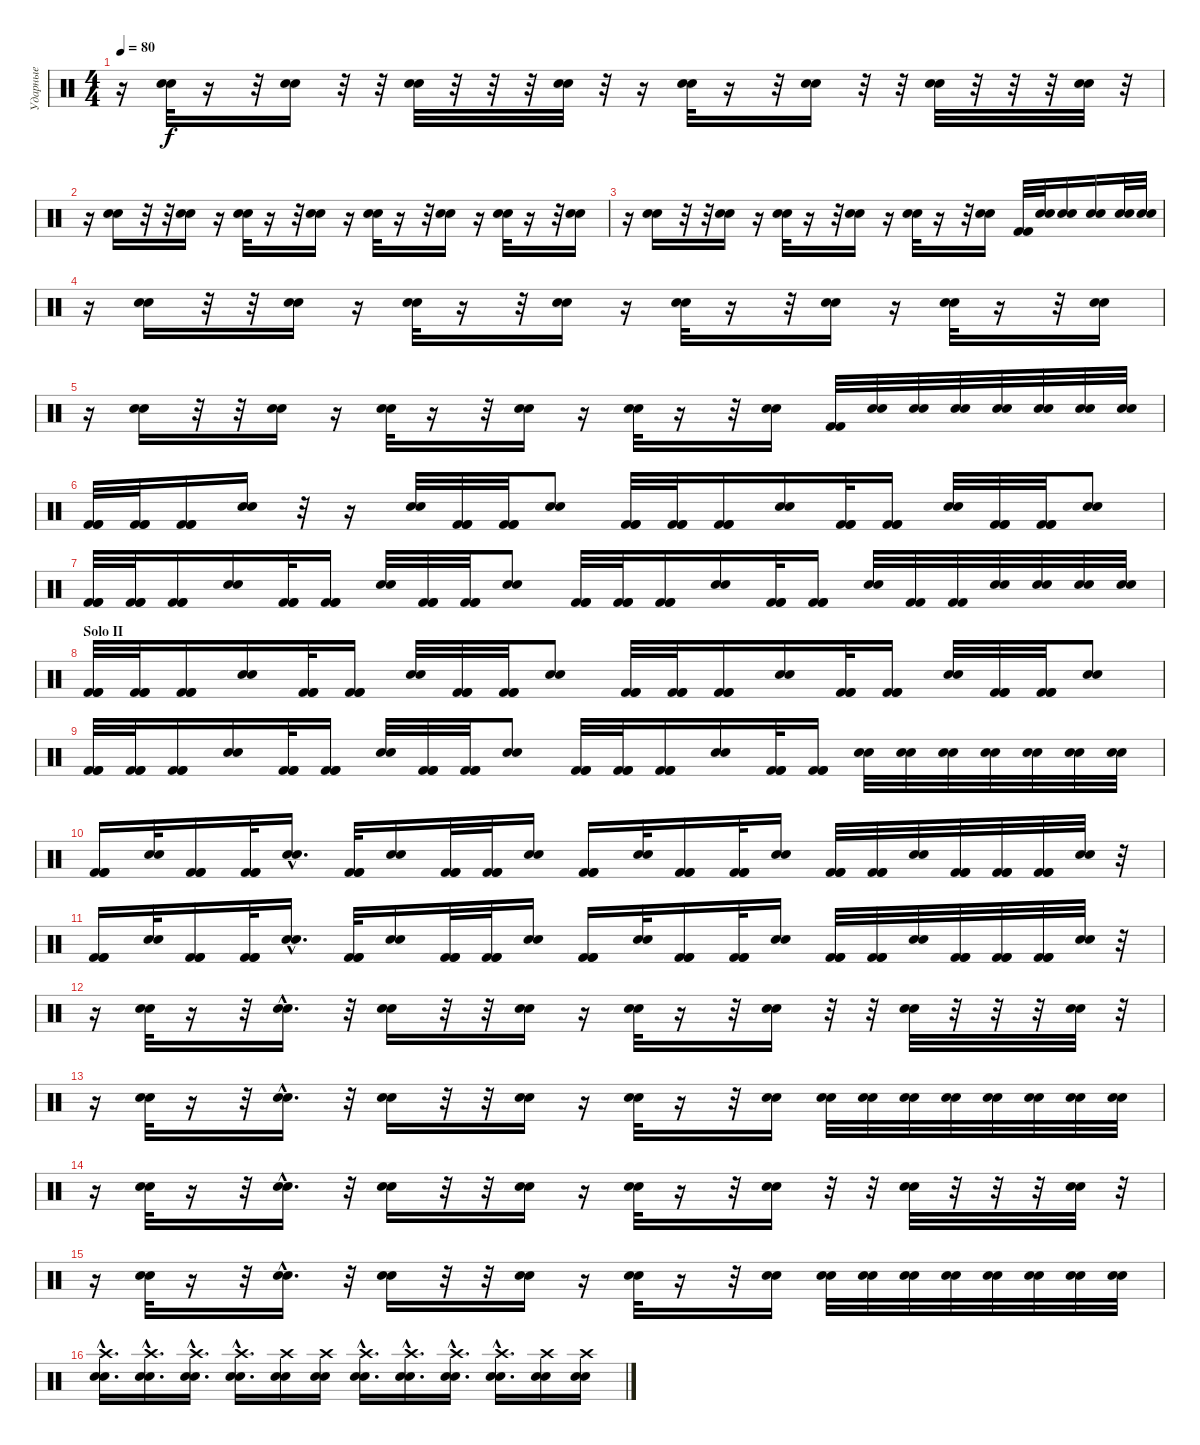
\track ("Ударные" "Ударные") {instrument percussion}
\staff {score}
\articulation defaults
\ts (4 4)
\tempo 80
\clef neutral
\ks c
r.16{dy f} ("Snare (hit) 2" "Snare (hit) 2").32 r.16 r.32 ("Snare (hit) 2" "Snare (hit) 2").16 r.32 r.32 ("Snare (hit) 2" "Snare (hit) 2").32 r.32 r.32 r.32 ("Snare (hit) 2" "Snare (hit) 2").32 r.32 r.16 ("Snare (hit) 2" "Snare (hit) 2").32 r.16 r.32 ("Snare (hit) 2" "Snare (hit) 2").16 r.32 r.32 ("Snare (hit) 2" "Snare (hit) 2").32 r.32 r.32 r.32 ("Snare (hit) 2" "Snare (hit) 2").32 r.32 |
r.16 ("Snare (hit) 2" "Snare (hit) 2").16 r.32 r.32 ("Snare (hit) 2" "Snare (hit) 2").16 r.16 ("Snare (hit) 2" "Snare (hit) 2").32 r.16 r.32 ("Snare (hit) 2" "Snare (hit) 2").16 r.16 ("Snare (hit) 2" "Snare (hit) 2").32 r.16 r.32 ("Snare (hit) 2" "Snare (hit) 2").16 r.16 ("Snare (hit) 2" "Snare (hit) 2").32 r.16 r.32 ("Snare (hit) 2" "Snare (hit) 2").16 |
r.16 ("Snare (hit) 2" "Snare (hit) 2").16 r.32 r.32 ("Snare (hit) 2" "Snare (hit) 2").16 r.16 ("Snare (hit) 2" "Snare (hit) 2").32 r.16 r.32 ("Snare (hit) 2" "Snare (hit) 2").16 r.16 ("Snare (hit) 2" "Snare (hit) 2").32 r.16 r.32 ("Snare (hit) 2" "Snare (hit) 2").16 ("Kick (hit) 2" "Kick (hit) 2").32 ("Snare (hit) 2" "Snare (hit) 2").32 ("Snare (hit) 2" "Snare (hit) 2").16 ("Snare (hit) 2" "Snare (hit) 2").16 ("Snare (hit) 2" "Snare (hit) 2").32 ("Snare (hit) 2" "Snare (hit) 2").32 |
r.16 ("Snare (hit) 2" "Snare (hit) 2").16 r.32 r.32 ("Snare (hit) 2" "Snare (hit) 2").16 r.16 ("Snare (hit) 2" "Snare (hit) 2").32 r.16 r.32 ("Snare (hit) 2" "Snare (hit) 2").16 r.16 ("Snare (hit) 2" "Snare (hit) 2").32 r.16 r.32 ("Snare (hit) 2" "Snare (hit) 2").16 r.16 ("Snare (hit) 2" "Snare (hit) 2").32 r.16 r.32 ("Snare (hit) 2" "Snare (hit) 2").16 |
r.16 ("Snare (hit) 2" "Snare (hit) 2").16 r.32 r.32 ("Snare (hit) 2" "Snare (hit) 2").16 r.16 ("Snare (hit) 2" "Snare (hit) 2").32 r.16 r.32 ("Snare (hit) 2" "Snare (hit) 2").16 r.16 ("Snare (hit) 2" "Snare (hit) 2").32 r.16 r.32 ("Snare (hit) 2" "Snare (hit) 2").16 ("Kick (hit) 2" "Kick (hit) 2").32 ("Snare (hit) 2" "Snare (hit) 2").32 ("Snare (hit) 2" "Snare (hit) 2").32 ("Snare (hit) 2" "Snare (hit) 2").32 ("Snare (hit) 2" "Snare (hit) 2").32 ("Snare (hit) 2" "Snare (hit) 2").32 ("Snare (hit) 2" "Snare (hit) 2").32 ("Snare (hit) 2" "Snare (hit) 2").32 |
("Kick (hit) 2" "Kick (hit) 2" "Kick (hit) 2").32 ("Kick (hit) 2" "Kick (hit) 2" "Kick (hit) 2").32 ("Kick (hit) 2" "Kick (hit) 2" "Kick (hit) 2").16 ("Snare (hit) 2" "Snare (hit) 2").16 r.32 r.16 ("Snare (hit) 2" "Snare (hit) 2").32 ("Kick (hit) 2" "Kick (hit) 2" "Kick (hit) 2").32 ("Kick (hit) 2" "Kick (hit) 2" "Kick (hit) 2").32 ("Snare (hit) 2" "Snare (hit) 2").8 ("Kick (hit) 2" "Kick (hit) 2" "Kick (hit) 2").32 ("Kick (hit) 2" "Kick (hit) 2" "Kick (hit) 2").32 ("Kick (hit) 2" "Kick (hit) 2" "Kick (hit) 2").16 ("Snare (hit) 2" "Snare (hit) 2").16 ("Kick (hit) 2" "Kick (hit) 2" "Kick (hit) 2").32 ("Kick (hit) 2" "Kick (hit) 2" "Kick (hit) 2").16 ("Snare (hit) 2" "Snare (hit) 2").32 ("Kick (hit) 2" "Kick (hit) 2" "Kick (hit) 2").32 ("Kick (hit) 2" "Kick (hit) 2" "Kick (hit) 2").32 ("Snare (hit) 2" "Snare (hit) 2").8 |
("Kick (hit) 2" "Kick (hit) 2" "Kick (hit) 2").32 ("Kick (hit) 2" "Kick (hit) 2" "Kick (hit) 2").32 ("Kick (hit) 2" "Kick (hit) 2" "Kick (hit) 2").16 ("Snare (hit) 2" "Snare (hit) 2").16 ("Kick (hit) 2" "Kick (hit) 2" "Kick (hit) 2").32 ("Kick (hit) 2" "Kick (hit) 2" "Kick (hit) 2").16 ("Snare (hit) 2" "Snare (hit) 2").32 ("Kick (hit) 2" "Kick (hit) 2" "Kick (hit) 2").32 ("Kick (hit) 2" "Kick (hit) 2" "Kick (hit) 2").32 ("Snare (hit) 2" "Snare (hit) 2").8 ("Kick (hit) 2" "Kick (hit) 2" "Kick (hit) 2").32 ("Kick (hit) 2" "Kick (hit) 2" "Kick (hit) 2").32 ("Kick (hit) 2" "Kick (hit) 2" "Kick (hit) 2").16 ("Snare (hit) 2" "Snare (hit) 2").16 ("Kick (hit) 2" "Kick (hit) 2" "Kick (hit) 2").32 ("Kick (hit) 2" "Kick (hit) 2" "Kick (hit) 2").16 ("Snare (hit) 2" "Snare (hit) 2").32 ("Kick (hit) 2" "Kick (hit) 2").32 ("Kick (hit) 2" "Kick (hit) 2").32 ("Snare (hit) 2" "Snare (hit) 2").32 ("Snare (hit) 2" "Snare (hit) 2").32 ("Snare (hit) 2" "Snare (hit) 2").32 ("Snare (hit) 2" "Snare (hit) 2").32 |
\section ("" "Solo II")
("Kick (hit) 2" "Kick (hit) 2" "Kick (hit) 2").32 ("Kick (hit) 2" "Kick (hit) 2" "Kick (hit) 2").32 ("Kick (hit) 2" "Kick (hit) 2" "Kick (hit) 2").16 ("Snare (hit) 2" "Snare (hit) 2").16 ("Kick (hit) 2" "Kick (hit) 2" "Kick (hit) 2").32 ("Kick (hit) 2" "Kick (hit) 2" "Kick (hit) 2").16 ("Snare (hit) 2" "Snare (hit) 2").32 ("Kick (hit) 2" "Kick (hit) 2" "Kick (hit) 2").32 ("Kick (hit) 2" "Kick (hit) 2" "Kick (hit) 2").32 ("Snare (hit) 2" "Snare (hit) 2").8 ("Kick (hit) 2" "Kick (hit) 2" "Kick (hit) 2").32 ("Kick (hit) 2" "Kick (hit) 2" "Kick (hit) 2").32 ("Kick (hit) 2" "Kick (hit) 2" "Kick (hit) 2").16 ("Snare (hit) 2" "Snare (hit) 2").16 ("Kick (hit) 2" "Kick (hit) 2" "Kick (hit) 2").32 ("Kick (hit) 2" "Kick (hit) 2" "Kick (hit) 2").16 ("Snare (hit) 2" "Snare (hit) 2").32 ("Kick (hit) 2" "Kick (hit) 2" "Kick (hit) 2").32 ("Kick (hit) 2" "Kick (hit) 2" "Kick (hit) 2").32 ("Snare (hit) 2" "Snare (hit) 2").8 |
("Kick (hit) 2" "Kick (hit) 2" "Kick (hit) 2").32 ("Kick (hit) 2" "Kick (hit) 2" "Kick (hit) 2").32 ("Kick (hit) 2" "Kick (hit) 2" "Kick (hit) 2").16 ("Snare (hit) 2" "Snare (hit) 2").16 ("Kick (hit) 2" "Kick (hit) 2" "Kick (hit) 2").32 ("Kick (hit) 2" "Kick (hit) 2" "Kick (hit) 2").16 ("Snare (hit) 2" "Snare (hit) 2").32 ("Kick (hit) 2" "Kick (hit) 2" "Kick (hit) 2").32 ("Kick (hit) 2" "Kick (hit) 2" "Kick (hit) 2").32 ("Snare (hit) 2" "Snare (hit) 2").8 ("Kick (hit) 2" "Kick (hit) 2" "Kick (hit) 2").32 ("Kick (hit) 2" "Kick (hit) 2" "Kick (hit) 2").32 ("Kick (hit) 2" "Kick (hit) 2" "Kick (hit) 2").16 ("Snare (hit) 2" "Snare (hit) 2").16 ("Kick (hit) 2" "Kick (hit) 2" "Kick (hit) 2").32 ("Kick (hit) 2" "Kick (hit) 2" "Kick (hit) 2").16 ("Snare (hit) 2" "Snare (hit) 2").32 ("Snare (hit) 2" "Snare (hit) 2").32 ("Snare (hit) 2" "Snare (hit) 2").32 ("Snare (hit) 2" "Snare (hit) 2").32 ("Snare (hit) 2" "Snare (hit) 2").32 ("Snare (hit) 2" "Snare (hit) 2").32 ("Snare (hit) 2" "Snare (hit) 2").32 |
("Kick (hit) 2" "Kick (hit) 2" "Kick (hit) 2").16 ("Snare (hit) 2" "Snare (hit) 2").32 ("Kick (hit) 2" "Kick (hit) 2" "Kick (hit) 2").16 ("Kick (hit) 2" "Kick (hit) 2" "Kick (hit) 2").32 ("Snare (hit) 2"{hac} "Snare (hit) 2"{hac}).16{d} ("Kick (hit) 2" "Kick (hit) 2" "Kick (hit) 2").32 ("Snare (hit) 2" "Snare (hit) 2").16 ("Kick (hit) 2" "Kick (hit) 2" "Kick (hit) 2").32 ("Kick (hit) 2" "Kick (hit) 2" "Kick (hit) 2").32 ("Snare (hit) 2" "Snare (hit) 2").16 ("Kick (hit) 2" "Kick (hit) 2" "Kick (hit) 2").16 ("Snare (hit) 2" "Snare (hit) 2").32 ("Kick (hit) 2" "Kick (hit) 2" "Kick (hit) 2").16 ("Kick (hit) 2" "Kick (hit) 2" "Kick (hit) 2").32 ("Snare (hit) 2" "Snare (hit) 2").16 ("Kick (hit) 2" "Kick (hit) 2" "Kick (hit) 2").32 ("Kick (hit) 2" "Kick (hit) 2" "Kick (hit) 2").32 ("Snare (hit) 2" "Snare (hit) 2").32 ("Kick (hit) 2" "Kick (hit) 2" "Kick (hit) 2").32 ("Kick (hit) 2" "Kick (hit) 2" "Kick (hit) 2").32 ("Kick (hit) 2" "Kick (hit) 2" "Kick (hit) 2").32 ("Snare (hit) 2" "Snare (hit) 2").32 r.32 |
("Kick (hit) 2" "Kick (hit) 2" "Kick (hit) 2").16 ("Snare (hit) 2" "Snare (hit) 2").32 ("Kick (hit) 2" "Kick (hit) 2" "Kick (hit) 2").16 ("Kick (hit) 2" "Kick (hit) 2" "Kick (hit) 2").32 ("Snare (hit) 2"{hac} "Snare (hit) 2"{hac}).16{d} ("Kick (hit) 2" "Kick (hit) 2" "Kick (hit) 2").32 ("Snare (hit) 2" "Snare (hit) 2").16 ("Kick (hit) 2" "Kick (hit) 2" "Kick (hit) 2").32 ("Kick (hit) 2" "Kick (hit) 2" "Kick (hit) 2").32 ("Snare (hit) 2" "Snare (hit) 2").16 ("Kick (hit) 2" "Kick (hit) 2" "Kick (hit) 2").16 ("Snare (hit) 2" "Snare (hit) 2").32 ("Kick (hit) 2" "Kick (hit) 2" "Kick (hit) 2").16 ("Kick (hit) 2" "Kick (hit) 2" "Kick (hit) 2").32 ("Snare (hit) 2" "Snare (hit) 2").16 ("Kick (hit) 2" "Kick (hit) 2" "Kick (hit) 2").32 ("Kick (hit) 2" "Kick (hit) 2" "Kick (hit) 2").32 ("Snare (hit) 2" "Snare (hit) 2").32 ("Kick (hit) 2" "Kick (hit) 2" "Kick (hit) 2").32 ("Kick (hit) 2" "Kick (hit) 2" "Kick (hit) 2").32 ("Kick (hit) 2" "Kick (hit) 2" "Kick (hit) 2").32 ("Snare (hit) 2" "Snare (hit) 2").32 r.32 |
r.16 ("Snare (hit) 2" "Snare (hit) 2").32 r.16 r.32 ("Snare (hit) 2"{hac} "Snare (hit) 2"{hac}).16{d} r.32 ("Snare (hit) 2" "Snare (hit) 2").16 r.32 r.32 ("Snare (hit) 2" "Snare (hit) 2").16 r.16 ("Snare (hit) 2" "Snare (hit) 2").32 r.16 r.32 ("Snare (hit) 2" "Snare (hit) 2").16 r.32 r.32 ("Snare (hit) 2" "Snare (hit) 2").32 r.32 r.32 r.32 ("Snare (hit) 2" "Snare (hit) 2").32 r.32 |
r.16 ("Snare (hit) 2" "Snare (hit) 2").32 r.16 r.32 ("Snare (hit) 2"{hac} "Snare (hit) 2"{hac}).16{d} r.32 ("Snare (hit) 2" "Snare (hit) 2").16 r.32 r.32 ("Snare (hit) 2" "Snare (hit) 2").16 r.16 ("Snare (hit) 2" "Snare (hit) 2").32 r.16 r.32 ("Snare (hit) 2" "Snare (hit) 2").16 ("Snare (hit) 2" "Snare (hit) 2").32 ("Snare (hit) 2" "Snare (hit) 2").32 ("Snare (hit) 2" "Snare (hit) 2").32 ("Snare (hit) 2" "Snare (hit) 2").32 ("Snare (hit) 2" "Snare (hit) 2").32 ("Snare (hit) 2" "Snare (hit) 2").32 ("Snare (hit) 2" "Snare (hit) 2").32 ("Snare (hit) 2" "Snare (hit) 2").32 |
r.16 ("Snare (hit) 2" "Snare (hit) 2").32 r.16 r.32 ("Snare (hit) 2"{hac} "Snare (hit) 2"{hac}).16{d} r.32 ("Snare (hit) 2" "Snare (hit) 2").16 r.32 r.32 ("Snare (hit) 2" "Snare (hit) 2").16 r.16 ("Snare (hit) 2" "Snare (hit) 2").32 r.16 r.32 ("Snare (hit) 2" "Snare (hit) 2").16 r.32 r.32 ("Snare (hit) 2" "Snare (hit) 2").32 r.32 r.32 r.32 ("Snare (hit) 2" "Snare (hit) 2").32 r.32 |
r.16 ("Snare (hit) 2" "Snare (hit) 2").32 r.16 r.32 ("Snare (hit) 2"{hac} "Snare (hit) 2"{hac}).16{d} r.32 ("Snare (hit) 2" "Snare (hit) 2").16 r.32 r.32 ("Snare (hit) 2" "Snare (hit) 2").16 r.16 ("Snare (hit) 2" "Snare (hit) 2").32 r.16 r.32 ("Snare (hit) 2" "Snare (hit) 2").16 ("Snare (hit) 2" "Snare (hit) 2").32 ("Snare (hit) 2" "Snare (hit) 2").32 ("Snare (hit) 2" "Snare (hit) 2").32 ("Snare (hit) 2" "Snare (hit) 2").32 ("Snare (hit) 2" "Snare (hit) 2").32 ("Snare (hit) 2" "Snare (hit) 2").32 ("Snare (hit) 2" "Snare (hit) 2").32 ("Snare (hit) 2" "Snare (hit) 2").32 |
("Crash high (hit)"{hac} "Snare (hit) 2"{hac} "Snare (hit) 2"{hac}).16{d} ("Crash high (hit)"{hac} "Snare (hit) 2"{hac} "Snare (hit) 2"{hac}).16{d} ("Crash high (hit)"{hac} "Snare (hit) 2"{hac} "Snare (hit) 2"{hac}).16{d} ("Crash high (hit)"{hac} "Snare (hit) 2"{hac} "Snare (hit) 2"{hac}).16{d} ("Crash high (hit)" "Snare (hit) 2" "Snare (hit) 2").16 ("Crash high (hit)" "Snare (hit) 2" "Snare (hit) 2").16 ("Crash high (hit)"{hac} "Snare (hit) 2"{hac} "Snare (hit) 2"{hac}).16{d} ("Crash high (hit)"{hac} "Snare (hit) 2"{hac} "Snare (hit) 2"{hac}).16{d} ("Crash high (hit)"{hac} "Snare (hit) 2"{hac} "Snare (hit) 2"{hac}).16{d} ("Crash high (hit)"{hac} "Snare (hit) 2"{hac} "Snare (hit) 2"{hac}).16{d} ("Crash high (hit)" "Snare (hit) 2" "Snare (hit) 2").16 ("Crash high (hit)" "Snare (hit) 2" "Snare (hit) 2").16
